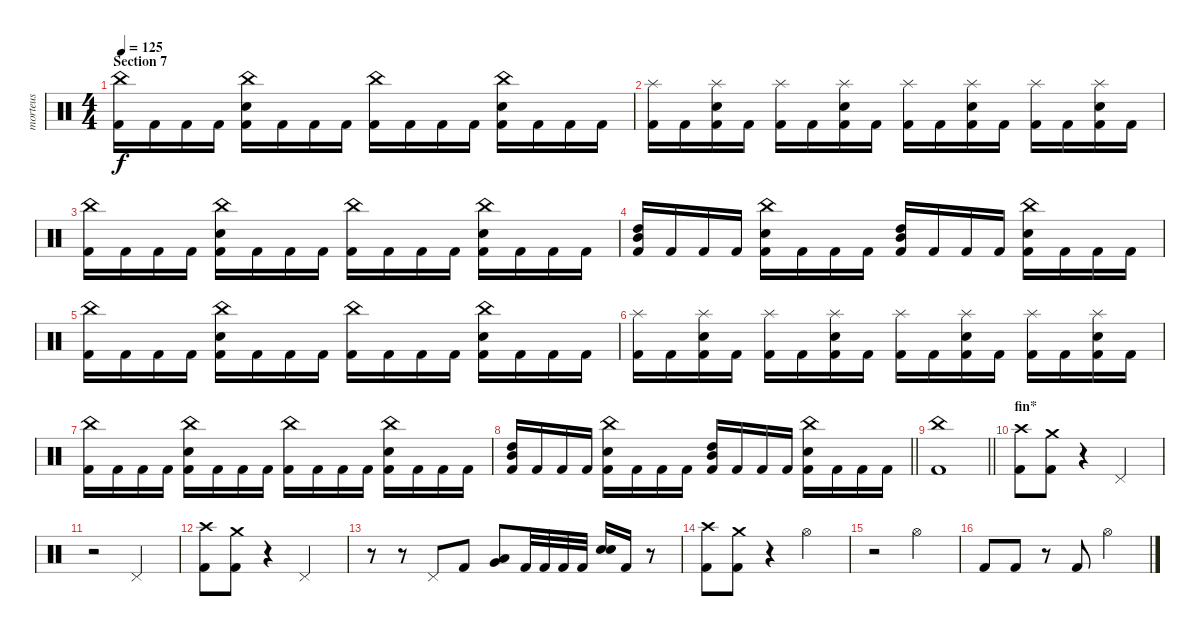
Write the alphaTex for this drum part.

\track ("morteus" "morteus") {instrument percussion}
\staff {score}
\articulation defaults
\ts (4 4)
\section ("" "Section 7")
\tempo 125
\clef neutral
\ks c
("China (hit)" "Kick (hit) 2").16{dy f} "Kick (hit) 2".16 "Kick (hit) 2".16 "Kick (hit) 2".16 ("China (hit)" "Electric Snare (hit)" "Kick (hit) 2").16 "Kick (hit) 2".16 "Kick (hit) 2".16 "Kick (hit) 2".16 ("China (hit)" "Kick (hit) 2").16 "Kick (hit) 2".16 "Kick (hit) 2".16 "Kick (hit) 2".16 ("China (hit)" "Electric Snare (hit)" "Kick (hit) 2").16 "Kick (hit) 2".16 "Kick (hit) 2".16 "Kick (hit) 2".16 |
("Splash (hit)" "Kick (hit) 2").16 "Kick (hit) 2".16 ("Splash (hit)" "Electric Snare (hit)" "Kick (hit) 2").16 "Kick (hit) 2".16 ("Splash (hit)" "Kick (hit) 2").16 "Kick (hit) 2".16 ("Splash (hit)" "Electric Snare (hit)" "Kick (hit) 2").16 "Kick (hit) 2".16 ("Splash (hit)" "Kick (hit) 2").16 "Kick (hit) 2".16 ("Splash (hit)" "Electric Snare (hit)" "Kick (hit) 2").16 "Kick (hit) 2".16 ("Splash (hit)" "Kick (hit) 2").16 "Kick (hit) 2".16 ("Splash (hit)" "Electric Snare (hit)" "Kick (hit) 2").16 "Kick (hit) 2".16 |
("China (hit)" "Kick (hit) 2").16 "Kick (hit) 2".16 "Kick (hit) 2".16 "Kick (hit) 2".16 ("China (hit)" "Electric Snare (hit)" "Kick (hit) 2").16 "Kick (hit) 2".16 "Kick (hit) 2".16 "Kick (hit) 2".16 ("China (hit)" "Kick (hit) 2").16 "Kick (hit) 2".16 "Kick (hit) 2".16 "Kick (hit) 2".16 ("China (hit)" "Electric Snare (hit)" "Kick (hit) 2").16 "Kick (hit) 2".16 "Kick (hit) 2".16 "Kick (hit) 2".16 |
("High Tom (hit)" "Mid Tom (hit)" "Kick (hit) 2").16 "Kick (hit) 2".16 "Kick (hit) 2".16 "Kick (hit) 2".16 ("China (hit)" "Electric Snare (hit)" "Kick (hit) 2").16 "Kick (hit) 2".16 "Kick (hit) 2".16 "Kick (hit) 2".16 ("High Tom (hit)" "Mid Tom (hit)" "Kick (hit) 2").16 "Kick (hit) 2".16 "Kick (hit) 2".16 "Kick (hit) 2".16 ("China (hit)" "Electric Snare (hit)" "Kick (hit) 2").16 "Kick (hit) 2".16 "Kick (hit) 2".16 "Kick (hit) 2".16 |
("China (hit)" "Kick (hit) 2").16 "Kick (hit) 2".16 "Kick (hit) 2".16 "Kick (hit) 2".16 ("China (hit)" "Electric Snare (hit)" "Kick (hit) 2").16 "Kick (hit) 2".16 "Kick (hit) 2".16 "Kick (hit) 2".16 ("China (hit)" "Kick (hit) 2").16 "Kick (hit) 2".16 "Kick (hit) 2".16 "Kick (hit) 2".16 ("China (hit)" "Electric Snare (hit)" "Kick (hit) 2").16 "Kick (hit) 2".16 "Kick (hit) 2".16 "Kick (hit) 2".16 |
("Splash (hit)" "Kick (hit) 2").16 "Kick (hit) 2".16 ("Splash (hit)" "Electric Snare (hit)" "Kick (hit) 2").16 "Kick (hit) 2".16 ("Splash (hit)" "Kick (hit) 2").16 "Kick (hit) 2".16 ("Splash (hit)" "Electric Snare (hit)" "Kick (hit) 2").16 "Kick (hit) 2".16 ("Splash (hit)" "Kick (hit) 2").16 "Kick (hit) 2".16 ("Splash (hit)" "Electric Snare (hit)" "Kick (hit) 2").16 "Kick (hit) 2".16 ("Splash (hit)" "Kick (hit) 2").16 "Kick (hit) 2".16 ("Splash (hit)" "Electric Snare (hit)" "Kick (hit) 2").16 "Kick (hit) 2".16 |
("China (hit)" "Kick (hit) 2").16 "Kick (hit) 2".16 "Kick (hit) 2".16 "Kick (hit) 2".16 ("China (hit)" "Electric Snare (hit)" "Kick (hit) 2").16 "Kick (hit) 2".16 "Kick (hit) 2".16 "Kick (hit) 2".16 ("China (hit)" "Kick (hit) 2").16 "Kick (hit) 2".16 "Kick (hit) 2".16 "Kick (hit) 2".16 ("China (hit)" "Electric Snare (hit)" "Kick (hit) 2").16 "Kick (hit) 2".16 "Kick (hit) 2".16 "Kick (hit) 2".16 |
\barLineRight lightlight
("High Tom (hit)" "Mid Tom (hit)" "Kick (hit) 2").16 "Kick (hit) 2".16 "Kick (hit) 2".16 "Kick (hit) 2".16 ("China (hit)" "Electric Snare (hit)" "Kick (hit) 2").16 "Kick (hit) 2".16 "Kick (hit) 2".16 "Kick (hit) 2".16 ("High Tom (hit)" "Mid Tom (hit)" "Kick (hit) 2").16 "Kick (hit) 2".16 "Kick (hit) 2".16 "Kick (hit) 2".16 ("China (hit)" "Electric Snare (hit)" "Kick (hit) 2").16 "Kick (hit) 2".16 "Kick (hit) 2".16 "Kick (hit) 2".16 |
\barLineRight lightlight
("Kick (hit) 2" "China (hit)").1 |
\section ("" "fin*")
("Kick (hit) 2" "Crash high (hit)").8 ("Kick (hit) 2" "Crash medium (hit)").8 r.4 "Pedal Hi-Hat (hit)".2 |
r.2 "Pedal Hi-Hat (hit)".2 |
("Kick (hit) 2" "Crash high (hit)").8 ("Kick (hit) 2" "Crash medium (hit)").8 r.4 "Pedal Hi-Hat (hit)".2 |
r.8 r.8 "Pedal Hi-Hat (hit)".8 "Kick (hit) 2".8 ("Very Low Tom (hit)" "Low Tom (hit)").8 "Kick (hit) 2".32 "Kick (hit) 2".32 "Kick (hit) 2".32 "Kick (hit) 2".32 ("Electric Snare (hit)" "Snare (hit) 2").16 "Kick (hit) 2".16 r.8 |
("Kick (hit) 2" "Crash high (hit)").8 ("Kick (hit) 2" "Crash medium (hit)").8 r.4 "Hi-Hat (open)".2 |
r.2 "Hi-Hat (open)".2 |
"Kick (hit) 2".8 "Kick (hit) 2".8 r.8 "Kick (hit) 2".8 "Hi-Hat (open)".2
